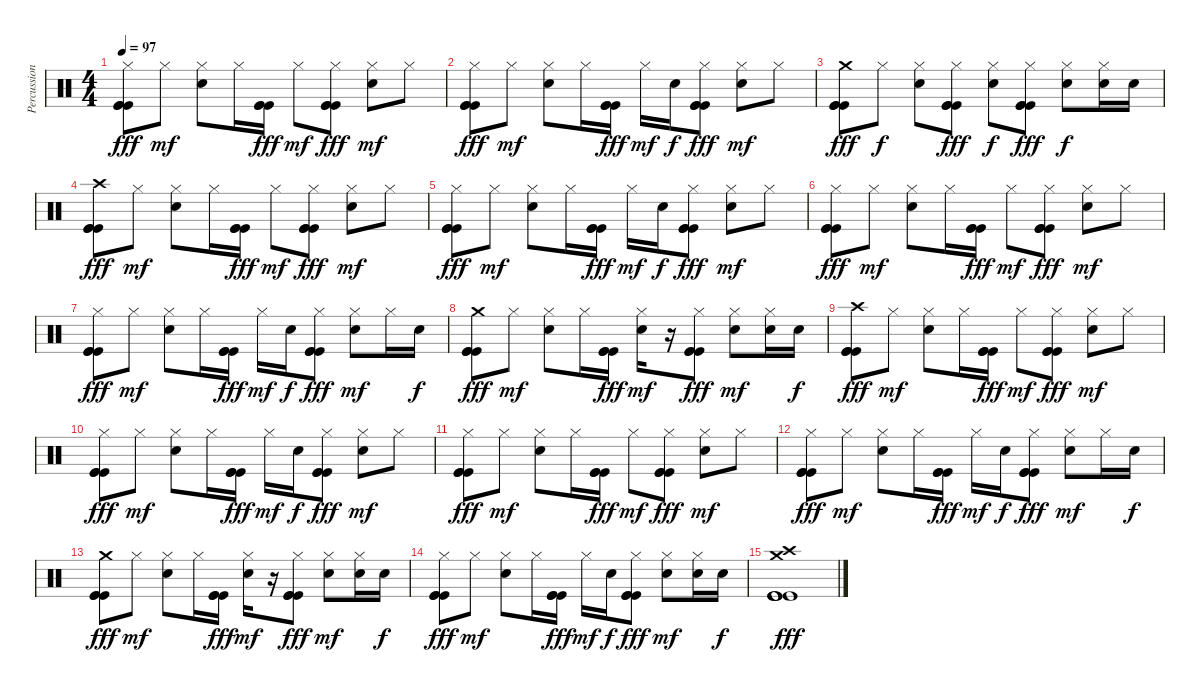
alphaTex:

\track ("Percussions" "Percussion") {instrument percussion}
\staff {score}
\articulation defaults
\ts (4 4)
\tempo 97
\clef neutral
\ks c
("Hi-Hat (closed)" "Kick (hit)" "Kick (hit)" "Kick (hit)").8{dy fff} "Hi-Hat (closed)".8{dy mf} ("Hi-Hat (closed)" "Electric Snare (hit)").8 "Hi-Hat (closed)".16 ("Kick (hit)" "Kick (hit)" "Kick (hit)").16{dy fff} "Hi-Hat (closed)".8{dy mf} ("Hi-Hat (closed)" "Kick (hit)" "Kick (hit)" "Kick (hit)").8{dy fff} ("Hi-Hat (closed)" "Electric Snare (hit)").8{dy mf} "Hi-Hat (closed)".8 |
("Hi-Hat (closed)" "Kick (hit)" "Kick (hit)" "Kick (hit)").8{dy fff} "Hi-Hat (closed)".8{dy mf} ("Hi-Hat (closed)" "Electric Snare (hit)").8 "Hi-Hat (closed)".16 ("Kick (hit)" "Kick (hit)" "Kick (hit)").16{dy fff} "Hi-Hat (closed)".16{dy mf} "Electric Snare (hit)".16{dy f} ("Hi-Hat (closed)" "Kick (hit)" "Kick (hit)" "Kick (hit)").8{dy fff} ("Hi-Hat (closed)" "Electric Snare (hit)").8{dy mf} "Hi-Hat (closed)".8 |
("Crash medium (hit)" "Kick (hit)" "Kick (hit)" "Kick (hit)").8{dy fff} "Hi-Hat (closed)".8{dy f} ("Hi-Hat (closed)" "Electric Snare (hit)").8 ("Hi-Hat (closed)" "Kick (hit)" "Kick (hit)" "Kick (hit)").8{dy fff} ("Hi-Hat (closed)" "Electric Snare (hit)").8{dy f} ("Hi-Hat (closed)" "Kick (hit)" "Kick (hit)" "Kick (hit)").8{dy fff} ("Hi-Hat (closed)" "Electric Snare (hit)").8{dy f} ("Hi-Hat (closed)" "Electric Snare (hit)").16 "Electric Snare (hit)".16 |
("Crash high (hit)" "Kick (hit)" "Kick (hit)" "Kick (hit)").8{dy fff} "Hi-Hat (closed)".8{dy mf} ("Hi-Hat (closed)" "Electric Snare (hit)").8 "Hi-Hat (closed)".16 ("Kick (hit)" "Kick (hit)" "Kick (hit)").16{dy fff} "Hi-Hat (closed)".8{dy mf} ("Hi-Hat (closed)" "Kick (hit)" "Kick (hit)" "Kick (hit)").8{dy fff} ("Hi-Hat (closed)" "Electric Snare (hit)").8{dy mf} "Hi-Hat (closed)".8 |
("Hi-Hat (closed)" "Kick (hit)" "Kick (hit)" "Kick (hit)").8{dy fff} "Hi-Hat (closed)".8{dy mf} ("Hi-Hat (closed)" "Electric Snare (hit)").8 "Hi-Hat (closed)".16 ("Kick (hit)" "Kick (hit)" "Kick (hit)").16{dy fff} "Hi-Hat (closed)".16{dy mf} "Electric Snare (hit)".16{dy f} ("Hi-Hat (closed)" "Kick (hit)" "Kick (hit)" "Kick (hit)").8{dy fff} ("Hi-Hat (closed)" "Electric Snare (hit)").8{dy mf} "Hi-Hat (closed)".8 |
("Hi-Hat (closed)" "Kick (hit)" "Kick (hit)" "Kick (hit)").8{dy fff} "Hi-Hat (closed)".8{dy mf} ("Hi-Hat (closed)" "Electric Snare (hit)").8 "Hi-Hat (closed)".16 ("Kick (hit)" "Kick (hit)" "Kick (hit)").16{dy fff} "Hi-Hat (closed)".8{dy mf} ("Hi-Hat (closed)" "Kick (hit)" "Kick (hit)" "Kick (hit)").8{dy fff} ("Hi-Hat (closed)" "Electric Snare (hit)").8{dy mf} "Hi-Hat (closed)".8 |
("Hi-Hat (closed)" "Kick (hit)" "Kick (hit)" "Kick (hit)").8{dy fff} "Hi-Hat (closed)".8{dy mf} ("Hi-Hat (closed)" "Electric Snare (hit)").8 "Hi-Hat (closed)".16 ("Kick (hit)" "Kick (hit)" "Kick (hit)").16{dy fff} "Hi-Hat (closed)".16{dy mf} "Electric Snare (hit)".16{dy f} ("Hi-Hat (closed)" "Kick (hit)" "Kick (hit)" "Kick (hit)").8{dy fff} ("Hi-Hat (closed)" "Electric Snare (hit)").8{dy mf} "Hi-Hat (closed)".16 "Electric Snare (hit)".16{dy f} |
("Crash medium (hit)" "Kick (hit)" "Kick (hit)" "Kick (hit)").8{dy fff} "Hi-Hat (closed)".8{dy mf} ("Hi-Hat (closed)" "Electric Snare (hit)").8 "Hi-Hat (closed)".16 ("Kick (hit)" "Kick (hit)" "Kick (hit)").16{dy fff} ("Hi-Hat (closed)" "Electric Snare (hit)").16{dy mf} r.16 ("Hi-Hat (closed)" "Kick (hit)" "Kick (hit)" "Kick (hit)").8{dy fff} ("Hi-Hat (closed)" "Electric Snare (hit)").8{dy mf} ("Hi-Hat (closed)" "Electric Snare (hit)").16 "Electric Snare (hit)".16{dy f} |
("Crash high (hit)" "Kick (hit)" "Kick (hit)" "Kick (hit)").8{dy fff} "Hi-Hat (closed)".8{dy mf} ("Hi-Hat (closed)" "Electric Snare (hit)").8 "Hi-Hat (closed)".16 ("Kick (hit)" "Kick (hit)" "Kick (hit)").16{dy fff} "Hi-Hat (closed)".8{dy mf} ("Hi-Hat (closed)" "Kick (hit)" "Kick (hit)" "Kick (hit)").8{dy fff} ("Hi-Hat (closed)" "Electric Snare (hit)").8{dy mf} "Hi-Hat (closed)".8 |
("Hi-Hat (closed)" "Kick (hit)" "Kick (hit)" "Kick (hit)").8{dy fff} "Hi-Hat (closed)".8{dy mf} ("Hi-Hat (closed)" "Electric Snare (hit)").8 "Hi-Hat (closed)".16 ("Kick (hit)" "Kick (hit)" "Kick (hit)").16{dy fff} "Hi-Hat (closed)".16{dy mf} "Electric Snare (hit)".16{dy f} ("Hi-Hat (closed)" "Kick (hit)" "Kick (hit)" "Kick (hit)").8{dy fff} ("Hi-Hat (closed)" "Electric Snare (hit)").8{dy mf} "Hi-Hat (closed)".8 |
("Hi-Hat (closed)" "Kick (hit)" "Kick (hit)" "Kick (hit)").8{dy fff} "Hi-Hat (closed)".8{dy mf} ("Hi-Hat (closed)" "Electric Snare (hit)").8 "Hi-Hat (closed)".16 ("Kick (hit)" "Kick (hit)" "Kick (hit)").16{dy fff} "Hi-Hat (closed)".8{dy mf} ("Hi-Hat (closed)" "Kick (hit)" "Kick (hit)" "Kick (hit)").8{dy fff} ("Hi-Hat (closed)" "Electric Snare (hit)").8{dy mf} "Hi-Hat (closed)".8 |
("Hi-Hat (closed)" "Kick (hit)" "Kick (hit)" "Kick (hit)").8{dy fff} "Hi-Hat (closed)".8{dy mf} ("Hi-Hat (closed)" "Electric Snare (hit)").8 "Hi-Hat (closed)".16 ("Kick (hit)" "Kick (hit)" "Kick (hit)").16{dy fff} "Hi-Hat (closed)".16{dy mf} "Electric Snare (hit)".16{dy f} ("Hi-Hat (closed)" "Kick (hit)" "Kick (hit)" "Kick (hit)").8{dy fff} ("Hi-Hat (closed)" "Electric Snare (hit)").8{dy mf} "Hi-Hat (closed)".16 "Electric Snare (hit)".16{dy f} |
("Crash medium (hit)" "Kick (hit)" "Kick (hit)" "Kick (hit)").8{dy fff} "Hi-Hat (closed)".8{dy mf} ("Hi-Hat (closed)" "Electric Snare (hit)").8 "Hi-Hat (closed)".16 ("Kick (hit)" "Kick (hit)" "Kick (hit)").16{dy fff} ("Hi-Hat (closed)" "Electric Snare (hit)").16{dy mf} r.16 ("Hi-Hat (closed)" "Kick (hit)" "Kick (hit)" "Kick (hit)").8{dy fff} ("Hi-Hat (closed)" "Electric Snare (hit)").8{dy mf} ("Hi-Hat (closed)" "Electric Snare (hit)").16 "Electric Snare (hit)".16{dy f} |
("Hi-Hat (closed)" "Kick (hit)" "Kick (hit)" "Kick (hit)").8{dy fff} "Hi-Hat (closed)".8{dy mf} ("Hi-Hat (closed)" "Electric Snare (hit)").8 "Hi-Hat (closed)".16 ("Kick (hit)" "Kick (hit)" "Kick (hit)").16{dy fff} "Hi-Hat (closed)".16{dy mf} "Electric Snare (hit)".16{dy f} ("Hi-Hat (closed)" "Kick (hit)" "Kick (hit)" "Kick (hit)").8{dy fff} ("Hi-Hat (closed)" "Electric Snare (hit)").8{dy mf} ("Hi-Hat (closed)" "Electric Snare (hit)").16 "Electric Snare (hit)".16{dy f} |
("Crash high (hit)" "Crash medium (hit)" "Kick (hit)" "Kick (hit)" "Kick (hit)" "Kick (hit)").1{dy fff}
